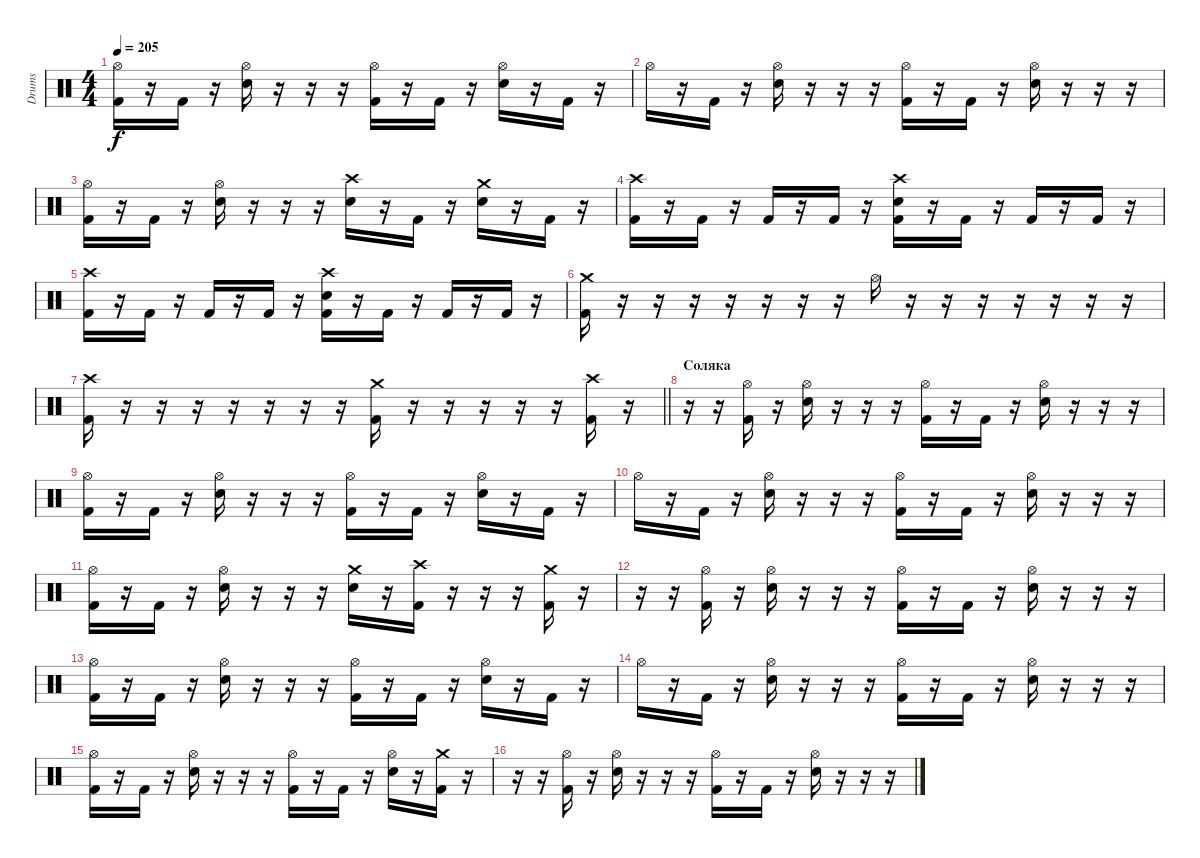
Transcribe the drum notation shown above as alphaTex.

\track ("Drums" "Drums") {instrument percussion}
\staff {score}
\articulation defaults
\ts (4 4)
\tempo 205
\clef neutral
\ks c
("Hi-Hat (open)" "Kick (hit) 2").16{dy f} r.16 "Kick (hit) 2".16 r.16 ("Hi-Hat (open)" "Electric Snare (hit)").16 r.16 r.16 r.16 ("Hi-Hat (open)" "Kick (hit) 2").16 r.16 "Kick (hit) 2".16 r.16 ("Hi-Hat (open)" "Electric Snare (hit)").16 r.16 "Kick (hit) 2".16 r.16 |
"Hi-Hat (open)".16 r.16 "Kick (hit) 2".16 r.16 ("Hi-Hat (open)" "Electric Snare (hit)").16 r.16 r.16 r.16 ("Hi-Hat (open)" "Kick (hit) 2").16 r.16 "Kick (hit) 2".16 r.16 ("Hi-Hat (open)" "Electric Snare (hit)").16 r.16 r.16 r.16 |
("Hi-Hat (open)" "Kick (hit) 2").16 r.16 "Kick (hit) 2".16 r.16 ("Hi-Hat (open)" "Electric Snare (hit)").16 r.16 r.16 r.16 ("Crash high (hit)" "Electric Snare (hit)").16 r.16 "Kick (hit) 2".16 r.16 ("Crash medium (hit)" "Electric Snare (hit)").16 r.16 "Kick (hit) 2".16 r.16 |
("Crash high (hit)" "Kick (hit) 2").16 r.16 "Kick (hit) 2".16 r.16 "Kick (hit) 2".16 r.16 "Kick (hit) 2".16 r.16 ("Crash high (hit)" "Electric Snare (hit)" "Kick (hit) 2").16 r.16 "Kick (hit) 2".16 r.16 "Kick (hit) 2".16 r.16 "Kick (hit) 2".16 r.16 |
("Crash high (hit)" "Kick (hit) 2").16 r.16 "Kick (hit) 2".16 r.16 "Kick (hit) 2".16 r.16 "Kick (hit) 2".16 r.16 ("Crash high (hit)" "Electric Snare (hit)" "Kick (hit) 2").16 r.16 "Kick (hit) 2".16 r.16 "Kick (hit) 2".16 r.16 "Kick (hit) 2".16 r.16 |
("Crash medium (hit)" "Kick (hit) 2").16 r.16 r.16 r.16 r.16 r.16 r.16 r.16 "Hi-Hat (open)".16 r.16 r.16 r.16 r.16 r.16 r.16 r.16 |
\barLineRight lightlight
("Crash high (hit)" "Kick (hit) 2").16 r.16 r.16 r.16 r.16 r.16 r.16 r.16 ("Crash medium (hit)" "Kick (hit) 2").16 r.16 r.16 r.16 r.16 r.16 ("Crash high (hit)" "Kick (hit) 2").16 r.16 |
\section ("" "Соляка")
r.16 r.16 ("Hi-Hat (open)" "Kick (hit) 2").16 r.16 ("Hi-Hat (open)" "Electric Snare (hit)").16 r.16 r.16 r.16 ("Hi-Hat (open)" "Kick (hit) 2").16 r.16 "Kick (hit) 2".16 r.16 ("Hi-Hat (open)" "Electric Snare (hit)").16 r.16 r.16 r.16 |
("Hi-Hat (open)" "Kick (hit) 2").16 r.16 "Kick (hit) 2".16 r.16 ("Hi-Hat (open)" "Electric Snare (hit)").16 r.16 r.16 r.16 ("Hi-Hat (open)" "Kick (hit) 2").16 r.16 "Kick (hit) 2".16 r.16 ("Hi-Hat (open)" "Electric Snare (hit)").16 r.16 "Kick (hit) 2".16 r.16 |
"Hi-Hat (open)".16 r.16 "Kick (hit) 2".16 r.16 ("Hi-Hat (open)" "Electric Snare (hit)").16 r.16 r.16 r.16 ("Hi-Hat (open)" "Kick (hit) 2").16 r.16 "Kick (hit) 2".16 r.16 ("Hi-Hat (open)" "Electric Snare (hit)").16 r.16 r.16 r.16 |
("Hi-Hat (open)" "Kick (hit) 2").16 r.16 "Kick (hit) 2".16 r.16 ("Hi-Hat (open)" "Electric Snare (hit)").16 r.16 r.16 r.16 ("Crash medium (hit)" "Electric Snare (hit)").16 r.16 ("Crash high (hit)" "Kick (hit) 2").16 r.16 r.16 r.16 ("Crash medium (hit)" "Kick (hit) 2").16 r.16 |
r.16 r.16 ("Hi-Hat (open)" "Kick (hit) 2").16 r.16 ("Hi-Hat (open)" "Electric Snare (hit)").16 r.16 r.16 r.16 ("Hi-Hat (open)" "Kick (hit) 2").16 r.16 "Kick (hit) 2".16 r.16 ("Hi-Hat (open)" "Electric Snare (hit)").16 r.16 r.16 r.16 |
("Hi-Hat (open)" "Kick (hit) 2").16 r.16 "Kick (hit) 2".16 r.16 ("Hi-Hat (open)" "Electric Snare (hit)").16 r.16 r.16 r.16 ("Hi-Hat (open)" "Kick (hit) 2").16 r.16 "Kick (hit) 2".16 r.16 ("Hi-Hat (open)" "Electric Snare (hit)").16 r.16 "Kick (hit) 2".16 r.16 |
"Hi-Hat (open)".16 r.16 "Kick (hit) 2".16 r.16 ("Hi-Hat (open)" "Electric Snare (hit)").16 r.16 r.16 r.16 ("Hi-Hat (open)" "Kick (hit) 2").16 r.16 "Kick (hit) 2".16 r.16 ("Hi-Hat (open)" "Electric Snare (hit)").16 r.16 r.16 r.16 |
("Hi-Hat (open)" "Kick (hit) 2").16 r.16 "Kick (hit) 2".16 r.16 ("Hi-Hat (open)" "Electric Snare (hit)").16 r.16 r.16 r.16 ("Hi-Hat (open)" "Kick (hit) 2").16 r.16 "Kick (hit) 2".16 r.16 ("Hi-Hat (open)" "Electric Snare (hit)").16 r.16 ("Crash medium (hit)" "Kick (hit) 2").16 r.16 |
r.16 r.16 ("Hi-Hat (open)" "Kick (hit) 2").16 r.16 ("Hi-Hat (open)" "Electric Snare (hit)").16 r.16 r.16 r.16 ("Hi-Hat (open)" "Kick (hit) 2").16 r.16 "Kick (hit) 2".16 r.16 ("Hi-Hat (open)" "Electric Snare (hit)").16 r.16 r.16 r.16
